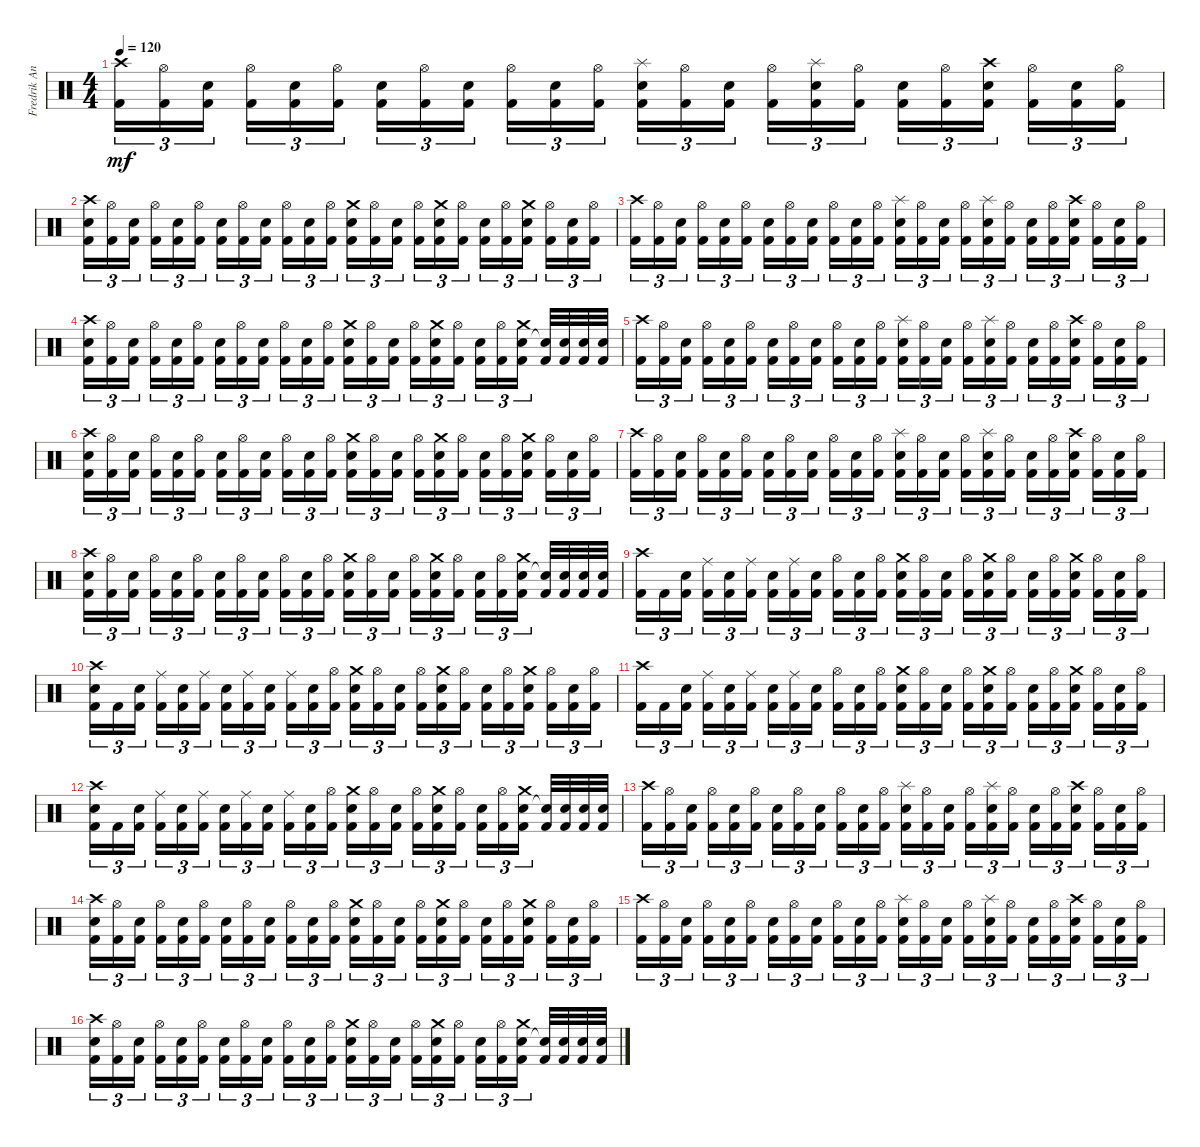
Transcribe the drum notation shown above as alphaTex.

\track ("Fredrik Andersson" "Fredrik An") {instrument percussion}
\staff {score}
\articulation defaults
\ts (4 4)
\tempo 120
\clef neutral
\ks c
("Crash high (hit)" "Kick (hit) 2").16{tu (3 2) dy mf} ("Hi-Hat (open)" "Kick (hit) 2").16{tu (3 2)} ("Snare (hit) 2" "Kick (hit) 2").16{tu (3 2) beam splitsecondary} ("Hi-Hat (open)" "Kick (hit) 2").16{tu (3 2)} ("Snare (hit) 2" "Kick (hit) 2").16{tu (3 2)} ("Hi-Hat (open)" "Kick (hit) 2").16{tu (3 2)} ("Snare (hit) 2" "Kick (hit) 2").16{tu (3 2)} ("Hi-Hat (open)" "Kick (hit) 2").16{tu (3 2)} ("Snare (hit) 2" "Kick (hit) 2").16{tu (3 2) beam splitsecondary} ("Hi-Hat (open)" "Kick (hit) 2").16{tu (3 2)} ("Snare (hit) 2" "Kick (hit) 2").16{tu (3 2)} ("Hi-Hat (open)" "Kick (hit) 2").16{tu (3 2)} ("Snare (hit) 2" "Splash (hit)" "Kick (hit) 2").16{tu (3 2)} ("Hi-Hat (open)" "Kick (hit) 2").16{tu (3 2)} ("Snare (hit) 2" "Kick (hit) 2").16{tu (3 2) beam splitsecondary} ("Hi-Hat (open)" "Kick (hit) 2").16{tu (3 2)} ("Snare (hit) 2" "Splash (hit)" "Kick (hit) 2").16{tu (3 2)} ("Hi-Hat (open)" "Kick (hit) 2").16{tu (3 2)} ("Snare (hit) 2" "Kick (hit) 2").16{tu (3 2)} ("Hi-Hat (open)" "Kick (hit) 2").16{tu (3 2)} ("Snare (hit) 2" "Crash high (hit)" "Kick (hit) 2").16{tu (3 2) beam splitsecondary} ("Hi-Hat (open)" "Kick (hit) 2").16{tu (3 2)} ("Snare (hit) 2" "Kick (hit) 2").16{tu (3 2)} ("Hi-Hat (open)" "Kick (hit) 2").16{tu (3 2)} |
("Snare (hit) 2" "Crash high (hit)" "Kick (hit) 2").16{tu (3 2)} ("Hi-Hat (open)" "Kick (hit) 2").16{tu (3 2)} ("Snare (hit) 2" "Kick (hit) 2").16{tu (3 2) beam splitsecondary} ("Hi-Hat (open)" "Kick (hit) 2").16{tu (3 2)} ("Snare (hit) 2" "Kick (hit) 2").16{tu (3 2)} ("Hi-Hat (open)" "Kick (hit) 2").16{tu (3 2)} ("Snare (hit) 2" "Kick (hit) 2").16{tu (3 2)} ("Hi-Hat (open)" "Kick (hit) 2").16{tu (3 2)} ("Snare (hit) 2" "Kick (hit) 2").16{tu (3 2) beam splitsecondary} ("Hi-Hat (open)" "Kick (hit) 2").16{tu (3 2)} ("Snare (hit) 2" "Kick (hit) 2").16{tu (3 2)} ("Hi-Hat (open)" "Kick (hit) 2").16{tu (3 2)} ("Snare (hit) 2" "Crash medium (hit)" "Kick (hit) 2").16{tu (3 2)} ("Hi-Hat (open)" "Kick (hit) 2").16{tu (3 2)} ("Snare (hit) 2" "Kick (hit) 2").16{tu (3 2) beam splitsecondary} ("Hi-Hat (open)" "Kick (hit) 2").16{tu (3 2)} ("Snare (hit) 2" "Crash medium (hit)" "Kick (hit) 2").16{tu (3 2)} ("Hi-Hat (open)" "Kick (hit) 2").16{tu (3 2)} ("Snare (hit) 2" "Kick (hit) 2").16{tu (3 2)} ("Hi-Hat (open)" "Kick (hit) 2").16{tu (3 2)} ("Snare (hit) 2" "Crash medium (hit)" "Kick (hit) 2").16{tu (3 2) beam splitsecondary} ("Hi-Hat (open)" "Kick (hit) 2").16{tu (3 2)} ("Snare (hit) 2" "Kick (hit) 2").16{tu (3 2)} ("Hi-Hat (open)" "Kick (hit) 2").16{tu (3 2)} |
("Crash high (hit)" "Kick (hit) 2").16{tu (3 2)} ("Hi-Hat (open)" "Kick (hit) 2").16{tu (3 2)} ("Snare (hit) 2" "Kick (hit) 2").16{tu (3 2) beam splitsecondary} ("Hi-Hat (open)" "Kick (hit) 2").16{tu (3 2)} ("Snare (hit) 2" "Kick (hit) 2").16{tu (3 2)} ("Hi-Hat (open)" "Kick (hit) 2").16{tu (3 2)} ("Snare (hit) 2" "Kick (hit) 2").16{tu (3 2)} ("Hi-Hat (open)" "Kick (hit) 2").16{tu (3 2)} ("Snare (hit) 2" "Kick (hit) 2").16{tu (3 2) beam splitsecondary} ("Hi-Hat (open)" "Kick (hit) 2").16{tu (3 2)} ("Snare (hit) 2" "Kick (hit) 2").16{tu (3 2)} ("Hi-Hat (open)" "Kick (hit) 2").16{tu (3 2)} ("Snare (hit) 2" "Splash (hit)" "Kick (hit) 2").16{tu (3 2)} ("Hi-Hat (open)" "Kick (hit) 2").16{tu (3 2)} ("Snare (hit) 2" "Kick (hit) 2").16{tu (3 2) beam splitsecondary} ("Hi-Hat (open)" "Kick (hit) 2").16{tu (3 2)} ("Snare (hit) 2" "Splash (hit)" "Kick (hit) 2").16{tu (3 2)} ("Hi-Hat (open)" "Kick (hit) 2").16{tu (3 2)} ("Snare (hit) 2" "Kick (hit) 2").16{tu (3 2)} ("Hi-Hat (open)" "Kick (hit) 2").16{tu (3 2)} ("Snare (hit) 2" "Crash high (hit)" "Kick (hit) 2").16{tu (3 2) beam splitsecondary} ("Hi-Hat (open)" "Kick (hit) 2").16{tu (3 2)} ("Snare (hit) 2" "Kick (hit) 2").16{tu (3 2)} ("Hi-Hat (open)" "Kick (hit) 2").16{tu (3 2)} |
("Snare (hit) 2" "Crash high (hit)" "Kick (hit) 2").16{tu (3 2)} ("Hi-Hat (open)" "Kick (hit) 2").16{tu (3 2)} ("Snare (hit) 2" "Kick (hit) 2").16{tu (3 2) beam splitsecondary} ("Hi-Hat (open)" "Kick (hit) 2").16{tu (3 2)} ("Snare (hit) 2" "Kick (hit) 2").16{tu (3 2)} ("Hi-Hat (open)" "Kick (hit) 2").16{tu (3 2)} ("Snare (hit) 2" "Kick (hit) 2").16{tu (3 2)} ("Hi-Hat (open)" "Kick (hit) 2").16{tu (3 2)} ("Snare (hit) 2" "Kick (hit) 2").16{tu (3 2) beam splitsecondary} ("Hi-Hat (open)" "Kick (hit) 2").16{tu (3 2)} ("Snare (hit) 2" "Kick (hit) 2").16{tu (3 2)} ("Hi-Hat (open)" "Kick (hit) 2").16{tu (3 2)} ("Snare (hit) 2" "Crash medium (hit)" "Kick (hit) 2").16{tu (3 2)} ("Hi-Hat (open)" "Kick (hit) 2").16{tu (3 2)} ("Snare (hit) 2" "Kick (hit) 2").16{tu (3 2) beam splitsecondary} ("Hi-Hat (open)" "Kick (hit) 2").16{tu (3 2)} ("Snare (hit) 2" "Crash medium (hit)" "Kick (hit) 2").16{tu (3 2)} ("Hi-Hat (open)" "Kick (hit) 2").16{tu (3 2)} ("Snare (hit) 2" "Kick (hit) 2").16{tu (3 2)} ("Hi-Hat (open)" "Kick (hit) 2").16{tu (3 2)} ("Snare (hit) 2" "Crash medium (hit)" "Kick (hit) 2").16{tu (3 2) beam splitsecondary} ("Snare (hit) 2"{t} "Kick (hit) 2").32 ("Snare (hit) 2" "Kick (hit) 2").32 ("Snare (hit) 2" "Kick (hit) 2").32 ("Snare (hit) 2" "Kick (hit) 2").32 |
("Crash high (hit)" "Kick (hit) 2").16{tu (3 2)} ("Hi-Hat (open)" "Kick (hit) 2").16{tu (3 2)} ("Snare (hit) 2" "Kick (hit) 2").16{tu (3 2) beam splitsecondary} ("Hi-Hat (open)" "Kick (hit) 2").16{tu (3 2)} ("Snare (hit) 2" "Kick (hit) 2").16{tu (3 2)} ("Hi-Hat (open)" "Kick (hit) 2").16{tu (3 2)} ("Snare (hit) 2" "Kick (hit) 2").16{tu (3 2)} ("Hi-Hat (open)" "Kick (hit) 2").16{tu (3 2)} ("Snare (hit) 2" "Kick (hit) 2").16{tu (3 2) beam splitsecondary} ("Hi-Hat (open)" "Kick (hit) 2").16{tu (3 2)} ("Snare (hit) 2" "Kick (hit) 2").16{tu (3 2)} ("Hi-Hat (open)" "Kick (hit) 2").16{tu (3 2)} ("Snare (hit) 2" "Splash (hit)" "Kick (hit) 2").16{tu (3 2)} ("Hi-Hat (open)" "Kick (hit) 2").16{tu (3 2)} ("Snare (hit) 2" "Kick (hit) 2").16{tu (3 2) beam splitsecondary} ("Hi-Hat (open)" "Kick (hit) 2").16{tu (3 2)} ("Snare (hit) 2" "Splash (hit)" "Kick (hit) 2").16{tu (3 2)} ("Hi-Hat (open)" "Kick (hit) 2").16{tu (3 2)} ("Snare (hit) 2" "Kick (hit) 2").16{tu (3 2)} ("Hi-Hat (open)" "Kick (hit) 2").16{tu (3 2)} ("Snare (hit) 2" "Crash high (hit)" "Kick (hit) 2").16{tu (3 2) beam splitsecondary} ("Hi-Hat (open)" "Kick (hit) 2").16{tu (3 2)} ("Snare (hit) 2" "Kick (hit) 2").16{tu (3 2)} ("Hi-Hat (open)" "Kick (hit) 2").16{tu (3 2)} |
("Snare (hit) 2" "Crash high (hit)" "Kick (hit) 2").16{tu (3 2)} ("Hi-Hat (open)" "Kick (hit) 2").16{tu (3 2)} ("Snare (hit) 2" "Kick (hit) 2").16{tu (3 2) beam splitsecondary} ("Hi-Hat (open)" "Kick (hit) 2").16{tu (3 2)} ("Snare (hit) 2" "Kick (hit) 2").16{tu (3 2)} ("Hi-Hat (open)" "Kick (hit) 2").16{tu (3 2)} ("Snare (hit) 2" "Kick (hit) 2").16{tu (3 2)} ("Hi-Hat (open)" "Kick (hit) 2").16{tu (3 2)} ("Snare (hit) 2" "Kick (hit) 2").16{tu (3 2) beam splitsecondary} ("Hi-Hat (open)" "Kick (hit) 2").16{tu (3 2)} ("Snare (hit) 2" "Kick (hit) 2").16{tu (3 2)} ("Hi-Hat (open)" "Kick (hit) 2").16{tu (3 2)} ("Snare (hit) 2" "Crash medium (hit)" "Kick (hit) 2").16{tu (3 2)} ("Hi-Hat (open)" "Kick (hit) 2").16{tu (3 2)} ("Snare (hit) 2" "Kick (hit) 2").16{tu (3 2) beam splitsecondary} ("Hi-Hat (open)" "Kick (hit) 2").16{tu (3 2)} ("Snare (hit) 2" "Crash medium (hit)" "Kick (hit) 2").16{tu (3 2)} ("Hi-Hat (open)" "Kick (hit) 2").16{tu (3 2)} ("Snare (hit) 2" "Kick (hit) 2").16{tu (3 2)} ("Hi-Hat (open)" "Kick (hit) 2").16{tu (3 2)} ("Snare (hit) 2" "Crash medium (hit)" "Kick (hit) 2").16{tu (3 2) beam splitsecondary} ("Hi-Hat (open)" "Kick (hit) 2").16{tu (3 2)} ("Snare (hit) 2" "Kick (hit) 2").16{tu (3 2)} ("Hi-Hat (open)" "Kick (hit) 2").16{tu (3 2)} |
("Crash high (hit)" "Kick (hit) 2").16{tu (3 2)} ("Hi-Hat (open)" "Kick (hit) 2").16{tu (3 2)} ("Snare (hit) 2" "Kick (hit) 2").16{tu (3 2) beam splitsecondary} ("Hi-Hat (open)" "Kick (hit) 2").16{tu (3 2)} ("Snare (hit) 2" "Kick (hit) 2").16{tu (3 2)} ("Hi-Hat (open)" "Kick (hit) 2").16{tu (3 2)} ("Snare (hit) 2" "Kick (hit) 2").16{tu (3 2)} ("Hi-Hat (open)" "Kick (hit) 2").16{tu (3 2)} ("Snare (hit) 2" "Kick (hit) 2").16{tu (3 2) beam splitsecondary} ("Hi-Hat (open)" "Kick (hit) 2").16{tu (3 2)} ("Snare (hit) 2" "Kick (hit) 2").16{tu (3 2)} ("Hi-Hat (open)" "Kick (hit) 2").16{tu (3 2)} ("Snare (hit) 2" "Splash (hit)" "Kick (hit) 2").16{tu (3 2)} ("Hi-Hat (open)" "Kick (hit) 2").16{tu (3 2)} ("Snare (hit) 2" "Kick (hit) 2").16{tu (3 2) beam splitsecondary} ("Hi-Hat (open)" "Kick (hit) 2").16{tu (3 2)} ("Snare (hit) 2" "Splash (hit)" "Kick (hit) 2").16{tu (3 2)} ("Hi-Hat (open)" "Kick (hit) 2").16{tu (3 2)} ("Snare (hit) 2" "Kick (hit) 2").16{tu (3 2)} ("Hi-Hat (open)" "Kick (hit) 2").16{tu (3 2)} ("Snare (hit) 2" "Crash high (hit)" "Kick (hit) 2").16{tu (3 2) beam splitsecondary} ("Hi-Hat (open)" "Kick (hit) 2").16{tu (3 2)} ("Snare (hit) 2" "Kick (hit) 2").16{tu (3 2)} ("Hi-Hat (open)" "Kick (hit) 2").16{tu (3 2)} |
("Snare (hit) 2" "Crash high (hit)" "Kick (hit) 2").16{tu (3 2)} ("Hi-Hat (open)" "Kick (hit) 2").16{tu (3 2)} ("Snare (hit) 2" "Kick (hit) 2").16{tu (3 2) beam splitsecondary} ("Hi-Hat (open)" "Kick (hit) 2").16{tu (3 2)} ("Snare (hit) 2" "Kick (hit) 2").16{tu (3 2)} ("Hi-Hat (open)" "Kick (hit) 2").16{tu (3 2)} ("Snare (hit) 2" "Kick (hit) 2").16{tu (3 2)} ("Hi-Hat (open)" "Kick (hit) 2").16{tu (3 2)} ("Snare (hit) 2" "Kick (hit) 2").16{tu (3 2) beam splitsecondary} ("Hi-Hat (open)" "Kick (hit) 2").16{tu (3 2)} ("Snare (hit) 2" "Kick (hit) 2").16{tu (3 2)} ("Hi-Hat (open)" "Kick (hit) 2").16{tu (3 2)} ("Snare (hit) 2" "Crash medium (hit)" "Kick (hit) 2").16{tu (3 2)} ("Hi-Hat (open)" "Kick (hit) 2").16{tu (3 2)} ("Snare (hit) 2" "Kick (hit) 2").16{tu (3 2) beam splitsecondary} ("Hi-Hat (open)" "Kick (hit) 2").16{tu (3 2)} ("Snare (hit) 2" "Crash medium (hit)" "Kick (hit) 2").16{tu (3 2)} ("Hi-Hat (open)" "Kick (hit) 2").16{tu (3 2)} ("Snare (hit) 2" "Kick (hit) 2").16{tu (3 2)} ("Hi-Hat (open)" "Kick (hit) 2").16{tu (3 2)} ("Snare (hit) 2" "Crash medium (hit)" "Kick (hit) 2").16{tu (3 2) beam splitsecondary} ("Snare (hit) 2"{t} "Kick (hit) 2").32 ("Snare (hit) 2" "Kick (hit) 2").32 ("Snare (hit) 2" "Kick (hit) 2").32 ("Snare (hit) 2" "Kick (hit) 2").32 |
("Crash high (hit)" "Kick (hit) 2").16{tu (3 2)} "Kick (hit) 2".16{tu (3 2)} ("Snare (hit) 2" "Kick (hit) 2").16{tu (3 2) beam splitsecondary} ("Ride (middle)" "Kick (hit) 2").16{tu (3 2)} ("Snare (hit) 2" "Kick (hit) 2").16{tu (3 2)} ("Ride (middle)" "Kick (hit) 2").16{tu (3 2)} ("Snare (hit) 2" "Kick (hit) 2").16{tu (3 2)} ("Ride (middle)" "Kick (hit) 2").16{tu (3 2)} ("Snare (hit) 2" "Kick (hit) 2").16{tu (3 2) beam splitsecondary} ("Hi-Hat (open)" "Kick (hit) 2").16{tu (3 2)} ("Snare (hit) 2" "Kick (hit) 2").16{tu (3 2)} ("Hi-Hat (open)" "Kick (hit) 2").16{tu (3 2)} ("Snare (hit) 2" "Crash medium (hit)" "Kick (hit) 2").16{tu (3 2)} ("Hi-Hat (open)" "Kick (hit) 2").16{tu (3 2)} ("Snare (hit) 2" "Kick (hit) 2").16{tu (3 2) beam splitsecondary} ("Hi-Hat (open)" "Kick (hit) 2").16{tu (3 2)} ("Snare (hit) 2" "Crash medium (hit)" "Kick (hit) 2").16{tu (3 2)} ("Hi-Hat (open)" "Kick (hit) 2").16{tu (3 2)} ("Snare (hit) 2" "Kick (hit) 2").16{tu (3 2)} ("Hi-Hat (open)" "Kick (hit) 2").16{tu (3 2)} ("Snare (hit) 2" "Crash medium (hit)" "Kick (hit) 2").16{tu (3 2) beam splitsecondary} ("Hi-Hat (open)" "Kick (hit) 2").16{tu (3 2)} ("Snare (hit) 2" "Kick (hit) 2").16{tu (3 2)} ("Hi-Hat (open)" "Kick (hit) 2").16{tu (3 2)} |
("Snare (hit) 2" "Crash high (hit)" "Kick (hit) 2").16{tu (3 2)} "Kick (hit) 2".16{tu (3 2)} ("Snare (hit) 2" "Kick (hit) 2").16{tu (3 2) beam splitsecondary} ("Ride (middle)" "Kick (hit) 2").16{tu (3 2)} ("Snare (hit) 2" "Kick (hit) 2").16{tu (3 2)} ("Ride (middle)" "Kick (hit) 2").16{tu (3 2)} ("Snare (hit) 2" "Kick (hit) 2").16{tu (3 2)} ("Ride (middle)" "Kick (hit) 2").16{tu (3 2)} ("Snare (hit) 2" "Kick (hit) 2").16{tu (3 2) beam splitsecondary} ("Ride (middle)" "Kick (hit) 2").16{tu (3 2)} ("Snare (hit) 2" "Kick (hit) 2").16{tu (3 2)} ("Hi-Hat (open)" "Kick (hit) 2").16{tu (3 2)} ("Snare (hit) 2" "Crash medium (hit)" "Kick (hit) 2").16{tu (3 2)} ("Hi-Hat (open)" "Kick (hit) 2").16{tu (3 2)} ("Snare (hit) 2" "Kick (hit) 2").16{tu (3 2) beam splitsecondary} ("Hi-Hat (open)" "Kick (hit) 2").16{tu (3 2)} ("Snare (hit) 2" "Crash medium (hit)" "Kick (hit) 2").16{tu (3 2)} ("Hi-Hat (open)" "Kick (hit) 2").16{tu (3 2)} ("Snare (hit) 2" "Kick (hit) 2").16{tu (3 2)} ("Hi-Hat (open)" "Kick (hit) 2").16{tu (3 2)} ("Snare (hit) 2" "Crash medium (hit)" "Kick (hit) 2").16{tu (3 2) beam splitsecondary} ("Hi-Hat (open)" "Kick (hit) 2").16{tu (3 2)} ("Snare (hit) 2" "Kick (hit) 2").16{tu (3 2)} ("Hi-Hat (open)" "Kick (hit) 2").16{tu (3 2)} |
("Crash high (hit)" "Kick (hit) 2").16{tu (3 2)} "Kick (hit) 2".16{tu (3 2)} ("Snare (hit) 2" "Kick (hit) 2").16{tu (3 2) beam splitsecondary} ("Ride (middle)" "Kick (hit) 2").16{tu (3 2)} ("Snare (hit) 2" "Kick (hit) 2").16{tu (3 2)} ("Ride (middle)" "Kick (hit) 2").16{tu (3 2)} ("Snare (hit) 2" "Kick (hit) 2").16{tu (3 2)} ("Ride (middle)" "Kick (hit) 2").16{tu (3 2)} ("Snare (hit) 2" "Kick (hit) 2").16{tu (3 2) beam splitsecondary} ("Hi-Hat (open)" "Kick (hit) 2").16{tu (3 2)} ("Snare (hit) 2" "Kick (hit) 2").16{tu (3 2)} ("Hi-Hat (open)" "Kick (hit) 2").16{tu (3 2)} ("Snare (hit) 2" "Crash medium (hit)" "Kick (hit) 2").16{tu (3 2)} ("Hi-Hat (open)" "Kick (hit) 2").16{tu (3 2)} ("Snare (hit) 2" "Kick (hit) 2").16{tu (3 2) beam splitsecondary} ("Hi-Hat (open)" "Kick (hit) 2").16{tu (3 2)} ("Snare (hit) 2" "Crash medium (hit)" "Kick (hit) 2").16{tu (3 2)} ("Hi-Hat (open)" "Kick (hit) 2").16{tu (3 2)} ("Snare (hit) 2" "Kick (hit) 2").16{tu (3 2)} ("Hi-Hat (open)" "Kick (hit) 2").16{tu (3 2)} ("Snare (hit) 2" "Crash medium (hit)" "Kick (hit) 2").16{tu (3 2) beam splitsecondary} ("Hi-Hat (open)" "Kick (hit) 2").16{tu (3 2)} ("Snare (hit) 2" "Kick (hit) 2").16{tu (3 2)} ("Hi-Hat (open)" "Kick (hit) 2").16{tu (3 2)} |
("Snare (hit) 2" "Crash high (hit)" "Kick (hit) 2").16{tu (3 2)} "Kick (hit) 2".16{tu (3 2)} ("Snare (hit) 2" "Kick (hit) 2").16{tu (3 2) beam splitsecondary} ("Ride (middle)" "Kick (hit) 2").16{tu (3 2)} ("Snare (hit) 2" "Kick (hit) 2").16{tu (3 2)} ("Ride (middle)" "Kick (hit) 2").16{tu (3 2)} ("Snare (hit) 2" "Kick (hit) 2").16{tu (3 2)} ("Ride (middle)" "Kick (hit) 2").16{tu (3 2)} ("Snare (hit) 2" "Kick (hit) 2").16{tu (3 2) beam splitsecondary} ("Ride (middle)" "Kick (hit) 2").16{tu (3 2)} ("Snare (hit) 2" "Kick (hit) 2").16{tu (3 2)} ("Hi-Hat (open)" "Kick (hit) 2").16{tu (3 2)} ("Snare (hit) 2" "Crash medium (hit)" "Kick (hit) 2").16{tu (3 2)} ("Hi-Hat (open)" "Kick (hit) 2").16{tu (3 2)} ("Snare (hit) 2" "Kick (hit) 2").16{tu (3 2) beam splitsecondary} ("Hi-Hat (open)" "Kick (hit) 2").16{tu (3 2)} ("Snare (hit) 2" "Crash medium (hit)" "Kick (hit) 2").16{tu (3 2)} ("Hi-Hat (open)" "Kick (hit) 2").16{tu (3 2)} ("Snare (hit) 2" "Kick (hit) 2").16{tu (3 2)} ("Hi-Hat (open)" "Kick (hit) 2").16{tu (3 2)} ("Snare (hit) 2" "Crash medium (hit)" "Kick (hit) 2").16{tu (3 2) beam splitsecondary} ("Snare (hit) 2"{t} "Kick (hit) 2").32 ("Snare (hit) 2" "Kick (hit) 2").32 ("Snare (hit) 2" "Kick (hit) 2").32 ("Snare (hit) 2" "Kick (hit) 2").32 |
("Crash high (hit)" "Kick (hit) 2").16{tu (3 2)} ("Hi-Hat (open)" "Kick (hit) 2").16{tu (3 2)} ("Snare (hit) 2" "Kick (hit) 2").16{tu (3 2) beam splitsecondary} ("Hi-Hat (open)" "Kick (hit) 2").16{tu (3 2)} ("Snare (hit) 2" "Kick (hit) 2").16{tu (3 2)} ("Hi-Hat (open)" "Kick (hit) 2").16{tu (3 2)} ("Snare (hit) 2" "Kick (hit) 2").16{tu (3 2)} ("Hi-Hat (open)" "Kick (hit) 2").16{tu (3 2)} ("Snare (hit) 2" "Kick (hit) 2").16{tu (3 2) beam splitsecondary} ("Hi-Hat (open)" "Kick (hit) 2").16{tu (3 2)} ("Snare (hit) 2" "Kick (hit) 2").16{tu (3 2)} ("Hi-Hat (open)" "Kick (hit) 2").16{tu (3 2)} ("Snare (hit) 2" "Splash (hit)" "Kick (hit) 2").16{tu (3 2)} ("Hi-Hat (open)" "Kick (hit) 2").16{tu (3 2)} ("Snare (hit) 2" "Kick (hit) 2").16{tu (3 2) beam splitsecondary} ("Hi-Hat (open)" "Kick (hit) 2").16{tu (3 2)} ("Snare (hit) 2" "Splash (hit)" "Kick (hit) 2").16{tu (3 2)} ("Hi-Hat (open)" "Kick (hit) 2").16{tu (3 2)} ("Snare (hit) 2" "Kick (hit) 2").16{tu (3 2)} ("Hi-Hat (open)" "Kick (hit) 2").16{tu (3 2)} ("Snare (hit) 2" "Crash high (hit)" "Kick (hit) 2").16{tu (3 2) beam splitsecondary} ("Hi-Hat (open)" "Kick (hit) 2").16{tu (3 2)} ("Snare (hit) 2" "Kick (hit) 2").16{tu (3 2)} ("Hi-Hat (open)" "Kick (hit) 2").16{tu (3 2)} |
("Snare (hit) 2" "Crash high (hit)" "Kick (hit) 2").16{tu (3 2)} ("Hi-Hat (open)" "Kick (hit) 2").16{tu (3 2)} ("Snare (hit) 2" "Kick (hit) 2").16{tu (3 2) beam splitsecondary} ("Hi-Hat (open)" "Kick (hit) 2").16{tu (3 2)} ("Snare (hit) 2" "Kick (hit) 2").16{tu (3 2)} ("Hi-Hat (open)" "Kick (hit) 2").16{tu (3 2)} ("Snare (hit) 2" "Kick (hit) 2").16{tu (3 2)} ("Hi-Hat (open)" "Kick (hit) 2").16{tu (3 2)} ("Snare (hit) 2" "Kick (hit) 2").16{tu (3 2) beam splitsecondary} ("Hi-Hat (open)" "Kick (hit) 2").16{tu (3 2)} ("Snare (hit) 2" "Kick (hit) 2").16{tu (3 2)} ("Hi-Hat (open)" "Kick (hit) 2").16{tu (3 2)} ("Snare (hit) 2" "Crash medium (hit)" "Kick (hit) 2").16{tu (3 2)} ("Hi-Hat (open)" "Kick (hit) 2").16{tu (3 2)} ("Snare (hit) 2" "Kick (hit) 2").16{tu (3 2) beam splitsecondary} ("Hi-Hat (open)" "Kick (hit) 2").16{tu (3 2)} ("Snare (hit) 2" "Crash medium (hit)" "Kick (hit) 2").16{tu (3 2)} ("Hi-Hat (open)" "Kick (hit) 2").16{tu (3 2)} ("Snare (hit) 2" "Kick (hit) 2").16{tu (3 2)} ("Hi-Hat (open)" "Kick (hit) 2").16{tu (3 2)} ("Snare (hit) 2" "Crash medium (hit)" "Kick (hit) 2").16{tu (3 2) beam splitsecondary} ("Hi-Hat (open)" "Kick (hit) 2").16{tu (3 2)} ("Snare (hit) 2" "Kick (hit) 2").16{tu (3 2)} ("Hi-Hat (open)" "Kick (hit) 2").16{tu (3 2)} |
("Crash high (hit)" "Kick (hit) 2").16{tu (3 2)} ("Hi-Hat (open)" "Kick (hit) 2").16{tu (3 2)} ("Snare (hit) 2" "Kick (hit) 2").16{tu (3 2) beam splitsecondary} ("Hi-Hat (open)" "Kick (hit) 2").16{tu (3 2)} ("Snare (hit) 2" "Kick (hit) 2").16{tu (3 2)} ("Hi-Hat (open)" "Kick (hit) 2").16{tu (3 2)} ("Snare (hit) 2" "Kick (hit) 2").16{tu (3 2)} ("Hi-Hat (open)" "Kick (hit) 2").16{tu (3 2)} ("Snare (hit) 2" "Kick (hit) 2").16{tu (3 2) beam splitsecondary} ("Hi-Hat (open)" "Kick (hit) 2").16{tu (3 2)} ("Snare (hit) 2" "Kick (hit) 2").16{tu (3 2)} ("Hi-Hat (open)" "Kick (hit) 2").16{tu (3 2)} ("Snare (hit) 2" "Splash (hit)" "Kick (hit) 2").16{tu (3 2)} ("Hi-Hat (open)" "Kick (hit) 2").16{tu (3 2)} ("Snare (hit) 2" "Kick (hit) 2").16{tu (3 2) beam splitsecondary} ("Hi-Hat (open)" "Kick (hit) 2").16{tu (3 2)} ("Snare (hit) 2" "Splash (hit)" "Kick (hit) 2").16{tu (3 2)} ("Hi-Hat (open)" "Kick (hit) 2").16{tu (3 2)} ("Snare (hit) 2" "Kick (hit) 2").16{tu (3 2)} ("Hi-Hat (open)" "Kick (hit) 2").16{tu (3 2)} ("Snare (hit) 2" "Crash high (hit)" "Kick (hit) 2").16{tu (3 2) beam splitsecondary} ("Hi-Hat (open)" "Kick (hit) 2").16{tu (3 2)} ("Snare (hit) 2" "Kick (hit) 2").16{tu (3 2)} ("Hi-Hat (open)" "Kick (hit) 2").16{tu (3 2)} |
("Snare (hit) 2" "Crash high (hit)" "Kick (hit) 2").16{tu (3 2)} ("Hi-Hat (open)" "Kick (hit) 2").16{tu (3 2)} ("Snare (hit) 2" "Kick (hit) 2").16{tu (3 2) beam splitsecondary} ("Hi-Hat (open)" "Kick (hit) 2").16{tu (3 2)} ("Snare (hit) 2" "Kick (hit) 2").16{tu (3 2)} ("Hi-Hat (open)" "Kick (hit) 2").16{tu (3 2)} ("Snare (hit) 2" "Kick (hit) 2").16{tu (3 2)} ("Hi-Hat (open)" "Kick (hit) 2").16{tu (3 2)} ("Snare (hit) 2" "Kick (hit) 2").16{tu (3 2) beam splitsecondary} ("Hi-Hat (open)" "Kick (hit) 2").16{tu (3 2)} ("Snare (hit) 2" "Kick (hit) 2").16{tu (3 2)} ("Hi-Hat (open)" "Kick (hit) 2").16{tu (3 2)} ("Snare (hit) 2" "Crash medium (hit)" "Kick (hit) 2").16{tu (3 2)} ("Hi-Hat (open)" "Kick (hit) 2").16{tu (3 2)} ("Snare (hit) 2" "Kick (hit) 2").16{tu (3 2) beam splitsecondary} ("Hi-Hat (open)" "Kick (hit) 2").16{tu (3 2)} ("Snare (hit) 2" "Crash medium (hit)" "Kick (hit) 2").16{tu (3 2)} ("Hi-Hat (open)" "Kick (hit) 2").16{tu (3 2)} ("Snare (hit) 2" "Kick (hit) 2").16{tu (3 2)} ("Hi-Hat (open)" "Kick (hit) 2").16{tu (3 2)} ("Snare (hit) 2" "Crash medium (hit)" "Kick (hit) 2").16{tu (3 2) beam splitsecondary} ("Snare (hit) 2"{t} "Kick (hit) 2").32 ("Snare (hit) 2" "Kick (hit) 2").32 ("Snare (hit) 2" "Kick (hit) 2").32 ("Snare (hit) 2" "Kick (hit) 2").32
